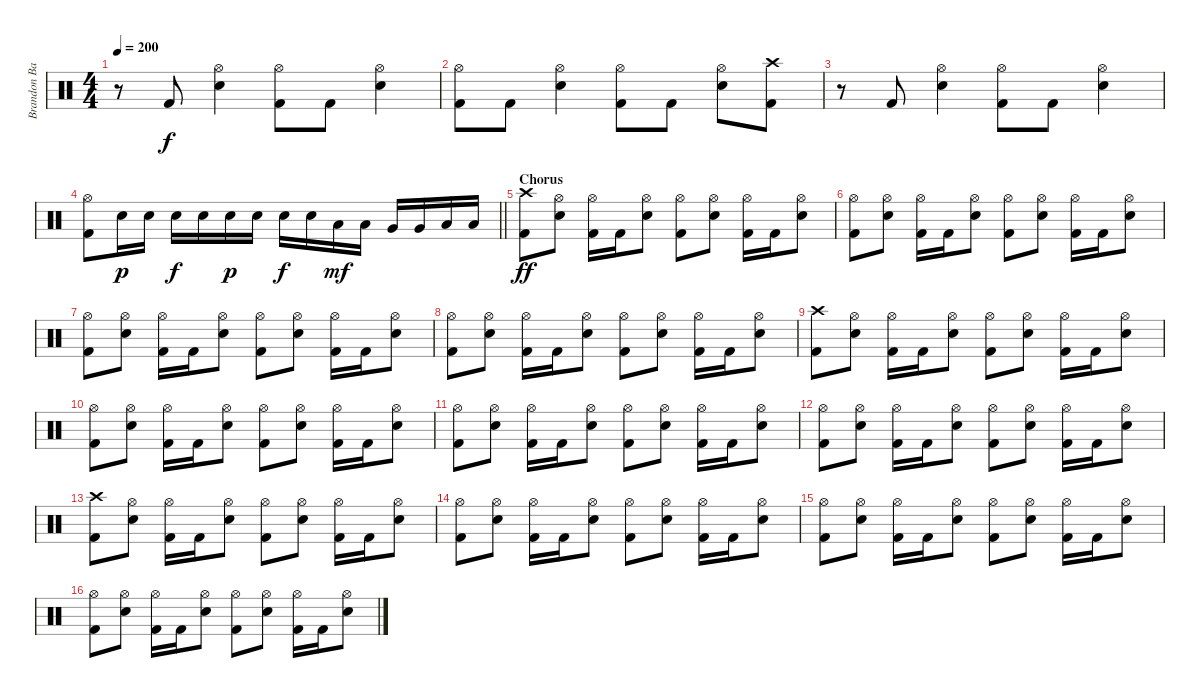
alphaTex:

\track ("Brandon Barnes - Drums" "Brandon Ba") {instrument percussion}
\staff {score}
\articulation defaults
\ts (4 4)
\tempo 200
\clef neutral
\ks c
r.8{dy f} "Kick (hit) 2".8 ("Hi-Hat (open)" "Electric Snare (hit)").4 ("Hi-Hat (open)" "Kick (hit) 2").8 "Kick (hit) 2".8 ("Hi-Hat (open)" "Electric Snare (hit)").4 |
("Hi-Hat (open)" "Kick (hit) 2").8 "Kick (hit) 2".8 ("Hi-Hat (open)" "Electric Snare (hit)").4 ("Hi-Hat (open)" "Kick (hit) 2").8 "Kick (hit) 2".8 ("Hi-Hat (open)" "Electric Snare (hit)").8 ("Crash high (hit)" "Kick (hit) 2").8 |
r.8 "Kick (hit) 2".8 ("Hi-Hat (open)" "Electric Snare (hit)").4 ("Hi-Hat (open)" "Kick (hit) 2").8 "Kick (hit) 2".8 ("Hi-Hat (open)" "Electric Snare (hit)").4 |
\barLineRight lightlight
("Hi-Hat (open)" "Kick (hit) 2").8 "Snare (hit) 2".16{dy p} "Snare (hit) 2".16 "Snare (hit) 2".16{dy f} "Snare (hit) 2".16 "Snare (hit) 2".16{dy p} "Snare (hit) 2".16 "Snare (hit) 2".16{dy f} "Snare (hit) 2".16 "Low Tom (hit)".16{dy mf} "Low Tom (hit)".16 "Very Low Tom (hit)".16 "Very Low Tom (hit)".16 "Low Floor Tom (hit)".16 "Low Floor Tom (hit)".16 |
\section ("" "Chorus")
("Crash high (hit)" "Kick (hit) 2").8{dy ff} ("Snare (hit) 2" "Hi-Hat (open)").8 ("Kick (hit) 2" "Hi-Hat (open)").16 "Kick (hit) 2".16 ("Snare (hit) 2" "Hi-Hat (open)").8 ("Kick (hit) 2" "Hi-Hat (open)").8 ("Snare (hit) 2" "Hi-Hat (open)").8 ("Kick (hit) 2" "Hi-Hat (open)").16 "Kick (hit) 2".16 ("Snare (hit) 2" "Hi-Hat (open)").8 |
("Kick (hit) 2" "Hi-Hat (open)").8 ("Snare (hit) 2" "Hi-Hat (open)").8 ("Kick (hit) 2" "Hi-Hat (open)").16 "Kick (hit) 2".16 ("Snare (hit) 2" "Hi-Hat (open)").8 ("Kick (hit) 2" "Hi-Hat (open)").8 ("Snare (hit) 2" "Hi-Hat (open)").8 ("Kick (hit) 2" "Hi-Hat (open)").16 "Kick (hit) 2".16 ("Snare (hit) 2" "Hi-Hat (open)").8 |
("Kick (hit) 2" "Hi-Hat (open)").8 ("Snare (hit) 2" "Hi-Hat (open)").8 ("Kick (hit) 2" "Hi-Hat (open)").16 "Kick (hit) 2".16 ("Snare (hit) 2" "Hi-Hat (open)").8 ("Kick (hit) 2" "Hi-Hat (open)").8 ("Snare (hit) 2" "Hi-Hat (open)").8 ("Kick (hit) 2" "Hi-Hat (open)").16 "Kick (hit) 2".16 ("Snare (hit) 2" "Hi-Hat (open)").8 |
("Kick (hit) 2" "Hi-Hat (open)").8 ("Snare (hit) 2" "Hi-Hat (open)").8 ("Kick (hit) 2" "Hi-Hat (open)").16 "Kick (hit) 2".16 ("Snare (hit) 2" "Hi-Hat (open)").8 ("Kick (hit) 2" "Hi-Hat (open)").8 ("Snare (hit) 2" "Hi-Hat (open)").8 ("Kick (hit) 2" "Hi-Hat (open)").16 "Kick (hit) 2".16 ("Snare (hit) 2" "Hi-Hat (open)").8 |
("Crash high (hit)" "Kick (hit) 2").8 ("Snare (hit) 2" "Hi-Hat (open)").8 ("Kick (hit) 2" "Hi-Hat (open)").16 "Kick (hit) 2".16 ("Snare (hit) 2" "Hi-Hat (open)").8 ("Kick (hit) 2" "Hi-Hat (open)").8 ("Snare (hit) 2" "Hi-Hat (open)").8 ("Kick (hit) 2" "Hi-Hat (open)").16 "Kick (hit) 2".16 ("Snare (hit) 2" "Hi-Hat (open)").8 |
("Kick (hit) 2" "Hi-Hat (open)").8 ("Snare (hit) 2" "Hi-Hat (open)").8 ("Kick (hit) 2" "Hi-Hat (open)").16 "Kick (hit) 2".16 ("Snare (hit) 2" "Hi-Hat (open)").8 ("Kick (hit) 2" "Hi-Hat (open)").8 ("Snare (hit) 2" "Hi-Hat (open)").8 ("Kick (hit) 2" "Hi-Hat (open)").16 "Kick (hit) 2".16 ("Snare (hit) 2" "Hi-Hat (open)").8 |
("Kick (hit) 2" "Hi-Hat (open)").8 ("Snare (hit) 2" "Hi-Hat (open)").8 ("Kick (hit) 2" "Hi-Hat (open)").16 "Kick (hit) 2".16 ("Snare (hit) 2" "Hi-Hat (open)").8 ("Kick (hit) 2" "Hi-Hat (open)").8 ("Snare (hit) 2" "Hi-Hat (open)").8 ("Kick (hit) 2" "Hi-Hat (open)").16 "Kick (hit) 2".16 ("Snare (hit) 2" "Hi-Hat (open)").8 |
("Kick (hit) 2" "Hi-Hat (open)").8 ("Snare (hit) 2" "Hi-Hat (open)").8 ("Kick (hit) 2" "Hi-Hat (open)").16 "Kick (hit) 2".16 ("Snare (hit) 2" "Hi-Hat (open)").8 ("Kick (hit) 2" "Hi-Hat (open)").8 ("Snare (hit) 2" "Hi-Hat (open)").8 ("Kick (hit) 2" "Hi-Hat (open)").16 "Kick (hit) 2".16 ("Snare (hit) 2" "Hi-Hat (open)").8 |
("Kick (hit) 2" "Crash high (hit)").8 ("Snare (hit) 2" "Hi-Hat (open)").8 ("Kick (hit) 2" "Hi-Hat (open)").16 "Kick (hit) 2".16 ("Snare (hit) 2" "Hi-Hat (open)").8 ("Kick (hit) 2" "Hi-Hat (open)").8 ("Snare (hit) 2" "Hi-Hat (open)").8 ("Kick (hit) 2" "Hi-Hat (open)").16 "Kick (hit) 2".16 ("Snare (hit) 2" "Hi-Hat (open)").8 |
("Kick (hit) 2" "Hi-Hat (open)").8 ("Snare (hit) 2" "Hi-Hat (open)").8 ("Kick (hit) 2" "Hi-Hat (open)").16 "Kick (hit) 2".16 ("Snare (hit) 2" "Hi-Hat (open)").8 ("Kick (hit) 2" "Hi-Hat (open)").8 ("Snare (hit) 2" "Hi-Hat (open)").8 ("Kick (hit) 2" "Hi-Hat (open)").16 "Kick (hit) 2".16 ("Snare (hit) 2" "Hi-Hat (open)").8 |
("Kick (hit) 2" "Hi-Hat (open)").8 ("Snare (hit) 2" "Hi-Hat (open)").8 ("Kick (hit) 2" "Hi-Hat (open)").16 "Kick (hit) 2".16 ("Snare (hit) 2" "Hi-Hat (open)").8 ("Kick (hit) 2" "Hi-Hat (open)").8 ("Snare (hit) 2" "Hi-Hat (open)").8 ("Kick (hit) 2" "Hi-Hat (open)").16 "Kick (hit) 2".16 ("Snare (hit) 2" "Hi-Hat (open)").8 |
("Kick (hit) 2" "Hi-Hat (open)").8 ("Snare (hit) 2" "Hi-Hat (open)").8 ("Kick (hit) 2" "Hi-Hat (open)").16 "Kick (hit) 2".16 ("Snare (hit) 2" "Hi-Hat (open)").8 ("Kick (hit) 2" "Hi-Hat (open)").8 ("Snare (hit) 2" "Hi-Hat (open)").8 ("Kick (hit) 2" "Hi-Hat (open)").16 "Kick (hit) 2".16 ("Snare (hit) 2" "Hi-Hat (open)").8
